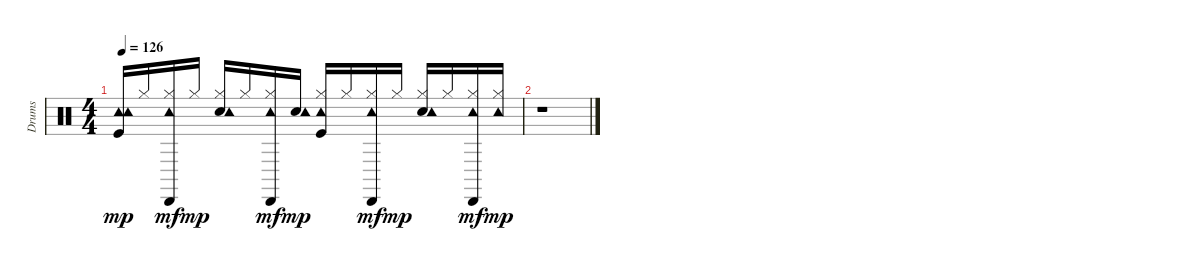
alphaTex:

\track ("Drums" "Drums") {instrument percussion}
\staff {score}
\articulation defaults
\ts (4 4)
\tempo 126
\clef neutral
\ks c
("Kick (hit)" "Tambourine (hit)" "Tambourine (hit)").16{dy mp} "Hi-Hat (closed)".16 ("Hi-Hat (closed)" "Tambourine (hit)" "Cabasa (hit)").16{dy mf} "Hi-Hat (closed)".16{dy mp} ("Snare (hit) 2" "Hi-Hat (closed)" "Tambourine (hit)").16 "Hi-Hat (closed)".16 ("Hi-Hat (closed)" "Tambourine (hit)" "Cabasa (hit)").16{dy mf} ("Snare (hit) 2" "Tambourine (hit)").16{dy mp} ("Kick (hit)" "Hi-Hat (closed)" "Tambourine (hit)").16 "Hi-Hat (closed)".16 ("Hi-Hat (closed)" "Tambourine (hit)" "Cabasa (hit)").16{dy mf} "Hi-Hat (closed)".16{dy mp} ("Snare (hit) 2" "Hi-Hat (closed)" "Tambourine (hit)").16 "Hi-Hat (closed)".16 ("Hi-Hat (closed)" "Tambourine (hit)" "Cabasa (hit)").16{dy mf} ("Hi-Hat (closed)" "Tambourine (hit)").16{dy mp} |
r.1
